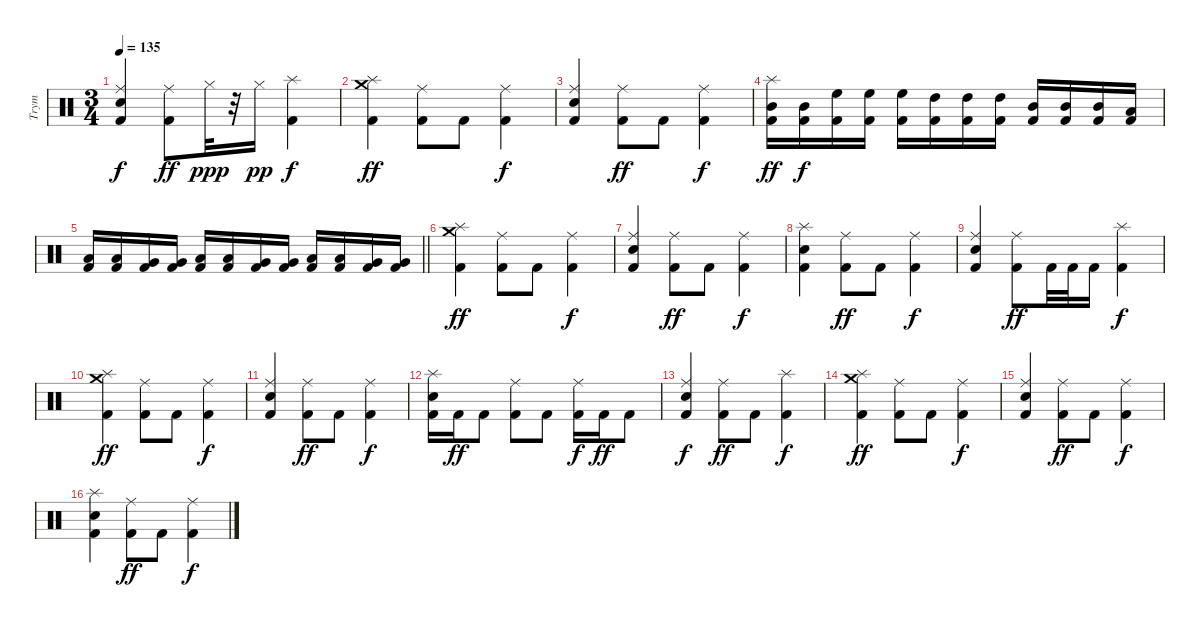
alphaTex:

\track ("Trym" "Trym") {instrument percussion}
\staff {score}
\articulation defaults
\ts (3 4)
\tempo 135
\clef neutral
\ks c
("Snare (hit) 2" "Ride (middle)" "Kick (hit) 2").4{dy f} ("Ride (middle)" "Kick (hit) 2").8{dy ff} "Hi-Hat (closed)".32{dy ppp} r.32 "Hi-Hat (closed)".16{dy pp} ("Splash (hit)" "Kick (hit) 2").4{dy f} |
("Crash medium (hit)" "Splash (hit)" "Kick (hit) 2").4{dy ff} ("Ride (middle)" "Kick (hit) 2").8 "Kick (hit) 2".8 ("Ride (middle)" "Kick (hit) 2").4{dy f} |
("Snare (hit) 2" "Ride (middle)" "Kick (hit) 2").4 ("Ride (middle)" "Kick (hit) 2").8{dy ff} "Kick (hit) 2".8 ("Ride (middle)" "Kick (hit) 2").4{dy f} |
("Splash (hit)" "Mid Tom (hit)" "Kick (hit) 2").16{dy ff} ("Mid Tom (hit)" "Kick (hit) 2").16{dy f} ("High Floor Tom (hit)" "Kick (hit) 2").16 ("High Floor Tom (hit)" "Kick (hit) 2").16 ("High Floor Tom (hit)" "Kick (hit) 2").16 ("High Tom (hit)" "Kick (hit) 2").16 ("High Tom (hit)" "Kick (hit) 2").16 ("High Tom (hit)" "Kick (hit) 2").16 ("Mid Tom (hit)" "Kick (hit) 2").16 ("Mid Tom (hit)" "Kick (hit) 2").16 ("Mid Tom (hit)" "Kick (hit) 2").16 ("Low Tom (hit)" "Kick (hit) 2").16 |
\barLineRight lightlight
("Low Tom (hit)" "Kick (hit) 2").16 ("Low Tom (hit)" "Kick (hit) 2").16 ("Very Low Tom (hit)" "Kick (hit) 2").16 ("Very Low Tom (hit)" "Kick (hit) 2").16 ("Low Tom (hit)" "Kick (hit) 2").16 ("Low Tom (hit)" "Kick (hit) 2").16 ("Very Low Tom (hit)" "Kick (hit) 2").16 ("Very Low Tom (hit)" "Kick (hit) 2").16 ("Low Tom (hit)" "Kick (hit) 2").16 ("Low Tom (hit)" "Kick (hit) 2").16 ("Very Low Tom (hit)" "Kick (hit) 2").16 ("Very Low Tom (hit)" "Kick (hit) 2").16 |
("Crash medium (hit)" "Splash (hit)" "Kick (hit) 2").4{dy ff} ("Ride (middle)" "Kick (hit) 2").8 "Kick (hit) 2".8 ("Ride (middle)" "Kick (hit) 2").4{dy f} |
("Snare (hit) 2" "Ride (middle)" "Kick (hit) 2").4 ("Ride (middle)" "Kick (hit) 2").8{dy ff} "Kick (hit) 2".8 ("Ride (middle)" "Kick (hit) 2").4{dy f} |
("Snare (hit) 2" "Splash (hit)" "Kick (hit) 2").4 ("Ride (middle)" "Kick (hit) 2").8{dy ff} "Kick (hit) 2".8 ("Ride (middle)" "Kick (hit) 2").4{dy f} |
("Snare (hit) 2" "Ride (middle)" "Kick (hit) 2").4 ("Ride (middle)" "Kick (hit) 2").8{dy ff} "Kick (hit) 2".32 "Kick (hit) 2".32 "Kick (hit) 2".16 ("Splash (hit)" "Kick (hit) 2").4{dy f} |
("Crash medium (hit)" "Splash (hit)" "Kick (hit) 2").4{dy ff} ("Ride (middle)" "Kick (hit) 2").8 "Kick (hit) 2".8 ("Ride (middle)" "Kick (hit) 2").4{dy f} |
("Snare (hit) 2" "Ride (middle)" "Kick (hit) 2").4 ("Ride (middle)" "Kick (hit) 2").8{dy ff} "Kick (hit) 2".8 ("Ride (middle)" "Kick (hit) 2").4{dy f} |
("Snare (hit) 2" "Splash (hit)" "Kick (hit) 2").16 "Kick (hit) 2".16{dy ff} "Kick (hit) 2".8 ("Ride (middle)" "Kick (hit) 2").8 "Kick (hit) 2".8 ("Ride (middle)" "Kick (hit) 2").16{dy f} "Kick (hit) 2".16{dy ff} "Kick (hit) 2".8 |
("Snare (hit) 2" "Ride (middle)" "Kick (hit) 2").4{dy f} ("Ride (middle)" "Kick (hit) 2").8{dy ff} "Kick (hit) 2".8 ("Splash (hit)" "Kick (hit) 2").4{dy f} |
("Crash medium (hit)" "Splash (hit)" "Kick (hit) 2").4{dy ff} ("Ride (middle)" "Kick (hit) 2").8 "Kick (hit) 2".8 ("Ride (middle)" "Kick (hit) 2").4{dy f} |
("Snare (hit) 2" "Ride (middle)" "Kick (hit) 2").4 ("Ride (middle)" "Kick (hit) 2").8{dy ff} "Kick (hit) 2".8 ("Ride (middle)" "Kick (hit) 2").4{dy f} |
("Snare (hit) 2" "Splash (hit)" "Kick (hit) 2").4 ("Ride (middle)" "Kick (hit) 2").8{dy ff} "Kick (hit) 2".8 ("Ride (middle)" "Kick (hit) 2").4{dy f}
